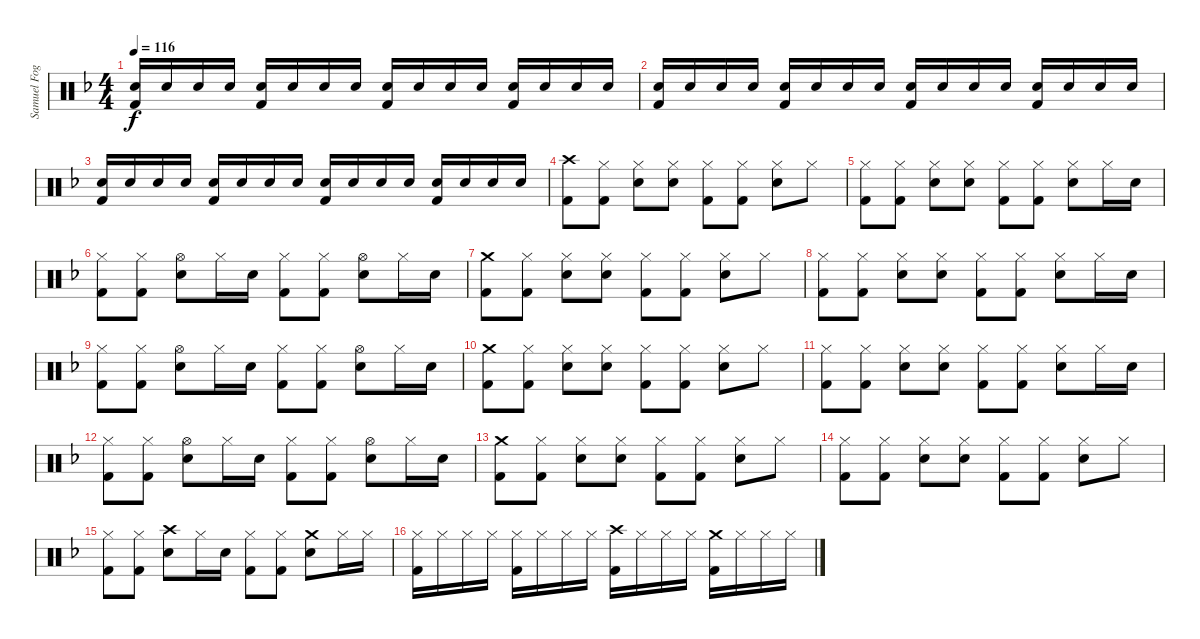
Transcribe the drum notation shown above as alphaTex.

\track ("Samuel Fogarino" "Samuel Fog") {instrument percussion}
\staff {score}
\articulation defaults
\ts (4 4)
\tempo 116
\clef neutral
\ks f
("Kick (hit) 2" "Snare (hit) 2").16{dy f} "Snare (hit) 2".16 "Snare (hit) 2".16 "Snare (hit) 2".16 ("Kick (hit) 2" "Snare (hit) 2").16 "Snare (hit) 2".16 "Snare (hit) 2".16 "Snare (hit) 2".16 ("Kick (hit) 2" "Snare (hit) 2").16 "Snare (hit) 2".16 "Snare (hit) 2".16 "Snare (hit) 2".16 ("Kick (hit) 2" "Snare (hit) 2").16 "Snare (hit) 2".16 "Snare (hit) 2".16 "Snare (hit) 2".16 |
("Kick (hit) 2" "Snare (hit) 2").16{volume 9} "Snare (hit) 2".16 "Snare (hit) 2".16 "Snare (hit) 2".16 ("Kick (hit) 2" "Snare (hit) 2").16 "Snare (hit) 2".16 "Snare (hit) 2".16 "Snare (hit) 2".16 ("Kick (hit) 2" "Snare (hit) 2").16 "Snare (hit) 2".16 "Snare (hit) 2".16 "Snare (hit) 2".16 ("Kick (hit) 2" "Snare (hit) 2").16 "Snare (hit) 2".16 "Snare (hit) 2".16 "Snare (hit) 2".16 |
("Kick (hit) 2" "Snare (hit) 2").16{volume 13} "Snare (hit) 2".16 "Snare (hit) 2".16 "Snare (hit) 2".16 ("Kick (hit) 2" "Snare (hit) 2").16 "Snare (hit) 2".16 "Snare (hit) 2".16 "Snare (hit) 2".16 ("Kick (hit) 2" "Snare (hit) 2").16 "Snare (hit) 2".16 "Snare (hit) 2".16 "Snare (hit) 2".16 ("Kick (hit) 2" "Snare (hit) 2").16 "Snare (hit) 2".16 "Snare (hit) 2".16 "Snare (hit) 2".16 |
("Crash high (hit)" "Kick (hit) 2").8 ("Hi-Hat (closed)" "Kick (hit) 2").8 ("Hi-Hat (closed)" "Snare (hit) 2").8 ("Hi-Hat (closed)" "Snare (hit) 2").8 ("Hi-Hat (closed)" "Kick (hit) 2").8 ("Hi-Hat (closed)" "Kick (hit) 2").8 ("Hi-Hat (closed)" "Snare (hit) 2").8 "Hi-Hat (closed)".8 |
("Hi-Hat (closed)" "Kick (hit) 2").8 ("Hi-Hat (closed)" "Kick (hit) 2").8 ("Hi-Hat (closed)" "Snare (hit) 2").8 ("Hi-Hat (closed)" "Snare (hit) 2").8 ("Hi-Hat (closed)" "Kick (hit) 2").8 ("Hi-Hat (closed)" "Kick (hit) 2").8 ("Hi-Hat (closed)" "Snare (hit) 2").8 "Hi-Hat (closed)".16 "Snare (hit) 2".16 |
("Hi-Hat (closed)" "Kick (hit) 2").8 ("Hi-Hat (closed)" "Kick (hit) 2").8 ("Hi-Hat (open)" "Snare (hit) 2").8 "Hi-Hat (closed)".16 "Snare (hit) 2".16 ("Hi-Hat (closed)" "Kick (hit) 2").8 ("Hi-Hat (closed)" "Kick (hit) 2").8 ("Hi-Hat (open)" "Snare (hit) 2").8 "Hi-Hat (closed)".16 "Snare (hit) 2".16 |
("Crash medium (hit)" "Kick (hit) 2").8 ("Hi-Hat (closed)" "Kick (hit) 2").8 ("Hi-Hat (closed)" "Snare (hit) 2").8 ("Hi-Hat (closed)" "Snare (hit) 2").8 ("Hi-Hat (closed)" "Kick (hit) 2").8 ("Hi-Hat (closed)" "Kick (hit) 2").8 ("Hi-Hat (closed)" "Snare (hit) 2").8 "Hi-Hat (closed)".8 |
("Hi-Hat (closed)" "Kick (hit) 2").8 ("Hi-Hat (closed)" "Kick (hit) 2").8 ("Hi-Hat (closed)" "Snare (hit) 2").8 ("Hi-Hat (closed)" "Snare (hit) 2").8 ("Hi-Hat (closed)" "Kick (hit) 2").8 ("Hi-Hat (closed)" "Kick (hit) 2").8 ("Hi-Hat (closed)" "Snare (hit) 2").8 "Hi-Hat (closed)".16 "Snare (hit) 2".16 |
("Hi-Hat (closed)" "Kick (hit) 2").8 ("Hi-Hat (closed)" "Kick (hit) 2").8 ("Hi-Hat (open)" "Snare (hit) 2").8 "Hi-Hat (closed)".16 "Snare (hit) 2".16 ("Hi-Hat (closed)" "Kick (hit) 2").8 ("Hi-Hat (closed)" "Kick (hit) 2").8 ("Hi-Hat (open)" "Snare (hit) 2").8 "Hi-Hat (closed)".16 "Snare (hit) 2".16 |
("Crash medium (hit)" "Kick (hit) 2").8 ("Hi-Hat (closed)" "Kick (hit) 2").8 ("Hi-Hat (closed)" "Snare (hit) 2").8 ("Hi-Hat (closed)" "Snare (hit) 2").8 ("Hi-Hat (closed)" "Kick (hit) 2").8 ("Hi-Hat (closed)" "Kick (hit) 2").8 ("Hi-Hat (closed)" "Snare (hit) 2").8 "Hi-Hat (closed)".8 |
("Hi-Hat (closed)" "Kick (hit) 2").8 ("Hi-Hat (closed)" "Kick (hit) 2").8 ("Hi-Hat (closed)" "Snare (hit) 2").8 ("Hi-Hat (closed)" "Snare (hit) 2").8 ("Hi-Hat (closed)" "Kick (hit) 2").8 ("Hi-Hat (closed)" "Kick (hit) 2").8 ("Hi-Hat (closed)" "Snare (hit) 2").8 "Hi-Hat (closed)".16 "Snare (hit) 2".16 |
("Hi-Hat (closed)" "Kick (hit) 2").8 ("Hi-Hat (closed)" "Kick (hit) 2").8 ("Hi-Hat (open)" "Snare (hit) 2").8 "Hi-Hat (closed)".16 "Snare (hit) 2".16 ("Hi-Hat (closed)" "Kick (hit) 2").8 ("Hi-Hat (closed)" "Kick (hit) 2").8 ("Hi-Hat (open)" "Snare (hit) 2").8 "Hi-Hat (closed)".16 "Snare (hit) 2".16 |
("Crash medium (hit)" "Kick (hit) 2").8 ("Hi-Hat (closed)" "Kick (hit) 2").8 ("Hi-Hat (closed)" "Snare (hit) 2").8 ("Hi-Hat (closed)" "Snare (hit) 2").8 ("Hi-Hat (closed)" "Kick (hit) 2").8 ("Hi-Hat (closed)" "Kick (hit) 2").8 ("Hi-Hat (closed)" "Snare (hit) 2").8 "Hi-Hat (closed)".8 |
("Hi-Hat (closed)" "Kick (hit) 2").8 ("Hi-Hat (closed)" "Kick (hit) 2").8 ("Hi-Hat (closed)" "Snare (hit) 2").8 ("Hi-Hat (closed)" "Snare (hit) 2").8 ("Hi-Hat (closed)" "Kick (hit) 2").8 ("Hi-Hat (closed)" "Kick (hit) 2").8 ("Hi-Hat (closed)" "Snare (hit) 2").8 "Hi-Hat (closed)".8 |
("Hi-Hat (closed)" "Kick (hit) 2").8 ("Hi-Hat (closed)" "Kick (hit) 2").8 ("Crash high (hit)" "Snare (hit) 2").8 "Hi-Hat (closed)".16 "Snare (hit) 2".16 ("Hi-Hat (closed)" "Kick (hit) 2").8 ("Hi-Hat (closed)" "Kick (hit) 2").8 ("Crash medium (hit)" "Snare (hit) 2").8 "Hi-Hat (closed)".16 "Hi-Hat (closed)".16 |
("Hi-Hat (closed)" "Kick (hit) 2").16 "Hi-Hat (closed)".16 "Hi-Hat (closed)".16 "Hi-Hat (closed)".16 ("Hi-Hat (closed)" "Kick (hit) 2").16 "Hi-Hat (closed)".16 "Hi-Hat (closed)".16 "Hi-Hat (closed)".16 ("Crash high (hit)" "Kick (hit) 2").16 "Hi-Hat (closed)".16 "Hi-Hat (closed)".16 "Hi-Hat (closed)".16 ("Crash medium (hit)" "Kick (hit) 2").16 "Hi-Hat (closed)".16 "Hi-Hat (closed)".16 "Hi-Hat (closed)".16
